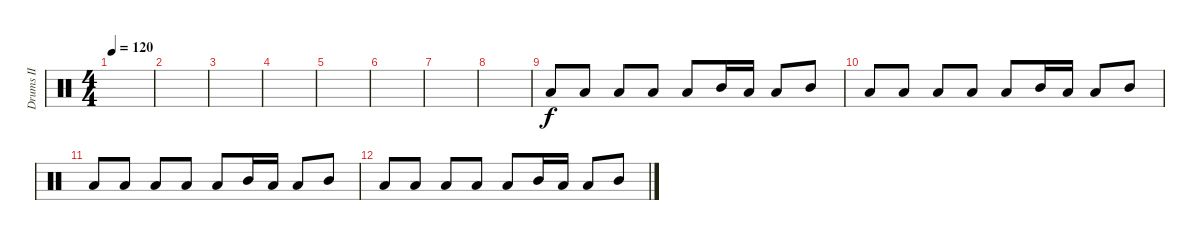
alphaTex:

\track ("Drums II" "Drums II") {instrument percussion}
\staff {score}
\articulation defaults
\ts (4 4)
\tempo 120
\clef neutral
\ks c
|
|
|
|
|
|
|
|
"Low Tom (hit)".8 "Low Tom (hit)".8 "Low Tom (hit)".8 "Low Tom (hit)".8 "Low Tom (hit)".8 "Mid Tom (hit)".16 "Low Tom (hit)".16 "Low Tom (hit)".8 "Mid Tom (hit)".8 |
"Low Tom (hit)".8 "Low Tom (hit)".8 "Low Tom (hit)".8 "Low Tom (hit)".8 "Low Tom (hit)".8 "Mid Tom (hit)".16 "Low Tom (hit)".16 "Low Tom (hit)".8 "Mid Tom (hit)".8 |
"Low Tom (hit)".8 "Low Tom (hit)".8 "Low Tom (hit)".8 "Low Tom (hit)".8 "Low Tom (hit)".8 "Mid Tom (hit)".16 "Low Tom (hit)".16 "Low Tom (hit)".8 "Mid Tom (hit)".8 |
"Low Tom (hit)".8 "Low Tom (hit)".8 "Low Tom (hit)".8 "Low Tom (hit)".8 "Low Tom (hit)".8 "Mid Tom (hit)".16 "Low Tom (hit)".16 "Low Tom (hit)".8 "Mid Tom (hit)".8
